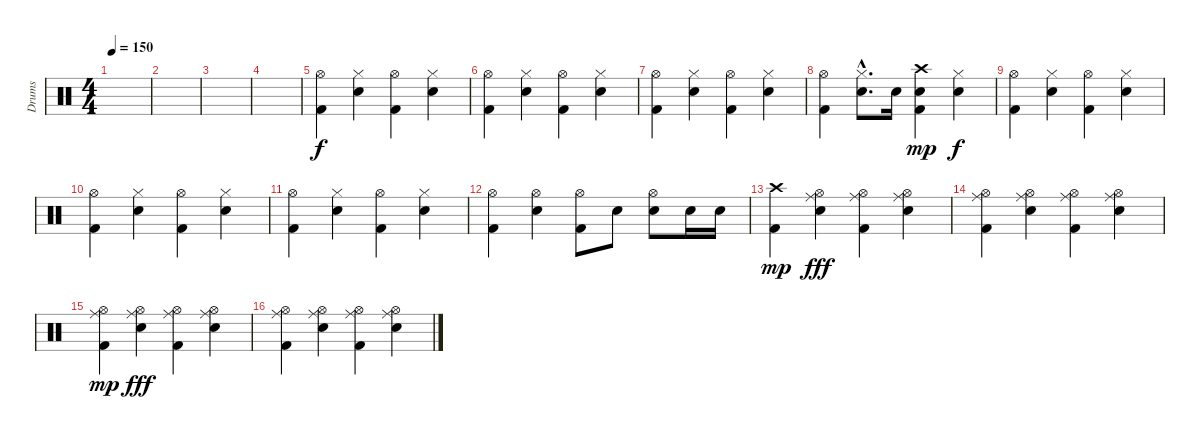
\track ("Drums" "Drums") {instrument percussion}
\staff {score}
\articulation defaults
\ts (4 4)
\tempo 150
\clef neutral
\ks c
|
|
|
|
("Kick (hit) 2" "Hi-Hat (open)").4 ("Electric Snare (hit)" "Hi-Hat (closed)").4 ("Kick (hit) 2" "Hi-Hat (open)").4 ("Electric Snare (hit)" "Hi-Hat (closed)").4 |
("Kick (hit) 2" "Hi-Hat (open)").4 ("Electric Snare (hit)" "Hi-Hat (closed)").4 ("Kick (hit) 2" "Hi-Hat (open)").4 ("Electric Snare (hit)" "Hi-Hat (closed)").4 |
("Kick (hit) 2" "Hi-Hat (open)").4 ("Electric Snare (hit)" "Hi-Hat (closed)").4 ("Kick (hit) 2" "Hi-Hat (open)").4 ("Electric Snare (hit)" "Hi-Hat (closed)").4 |
("Kick (hit) 2" "Hi-Hat (open)").4 ("Electric Snare (hit)"{hac} "Hi-Hat (closed)"{hac}).8{d} "Electric Snare (hit)".16 ("Electric Snare (hit)" "Kick (hit) 2" "Crash high (hit)").4{dy mp} ("Electric Snare (hit)" "Hi-Hat (closed)").4{dy f} |
("Kick (hit) 2" "Hi-Hat (open)").4 ("Electric Snare (hit)" "Hi-Hat (closed)").4 ("Kick (hit) 2" "Hi-Hat (open)").4 ("Electric Snare (hit)" "Hi-Hat (closed)").4 |
("Kick (hit) 2" "Hi-Hat (open)").4 ("Electric Snare (hit)" "Hi-Hat (closed)").4 ("Kick (hit) 2" "Hi-Hat (open)").4 ("Electric Snare (hit)" "Hi-Hat (closed)").4 |
("Kick (hit) 2" "Hi-Hat (open)").4 ("Electric Snare (hit)" "Hi-Hat (closed)").4 ("Kick (hit) 2" "Hi-Hat (open)").4 ("Electric Snare (hit)" "Hi-Hat (closed)").4 |
("Kick (hit) 2" "Hi-Hat (open)").4 ("Electric Snare (hit)" "Hi-Hat (open)").4 ("Kick (hit) 2" "Hi-Hat (open)").8 "Electric Snare (hit)".8 ("Electric Snare (hit)" "Hi-Hat (open)").8 "Electric Snare (hit)".16 "Electric Snare (hit)".16 |
("Kick (hit) 2" "Crash high (hit)").4{dy mp} ("Electric Snare (hit)" "Hi-Hat (open)" "Ride (middle)").4{dy fff} ("Kick (hit) 2" "Hi-Hat (open)" "Ride (middle)").4 ("Electric Snare (hit)" "Hi-Hat (open)" "Ride (middle)").4 |
("Kick (hit) 2" "Hi-Hat (open)" "Ride (middle)").4 ("Electric Snare (hit)" "Hi-Hat (open)" "Ride (middle)").4 ("Kick (hit) 2" "Hi-Hat (open)" "Ride (middle)").4 ("Electric Snare (hit)" "Hi-Hat (open)" "Ride (middle)").4 |
("Kick (hit) 2" "Hi-Hat (open)" "Ride (middle)").4{dy mp} ("Electric Snare (hit)" "Hi-Hat (open)" "Ride (middle)").4{dy fff} ("Kick (hit) 2" "Hi-Hat (open)" "Ride (middle)").4 ("Electric Snare (hit)" "Hi-Hat (open)" "Ride (middle)").4 |
("Kick (hit) 2" "Hi-Hat (open)" "Ride (middle)").4 ("Electric Snare (hit)" "Hi-Hat (open)" "Ride (middle)").4 ("Kick (hit) 2" "Hi-Hat (open)" "Ride (middle)").4 ("Electric Snare (hit)" "Hi-Hat (open)" "Ride (middle)").4
